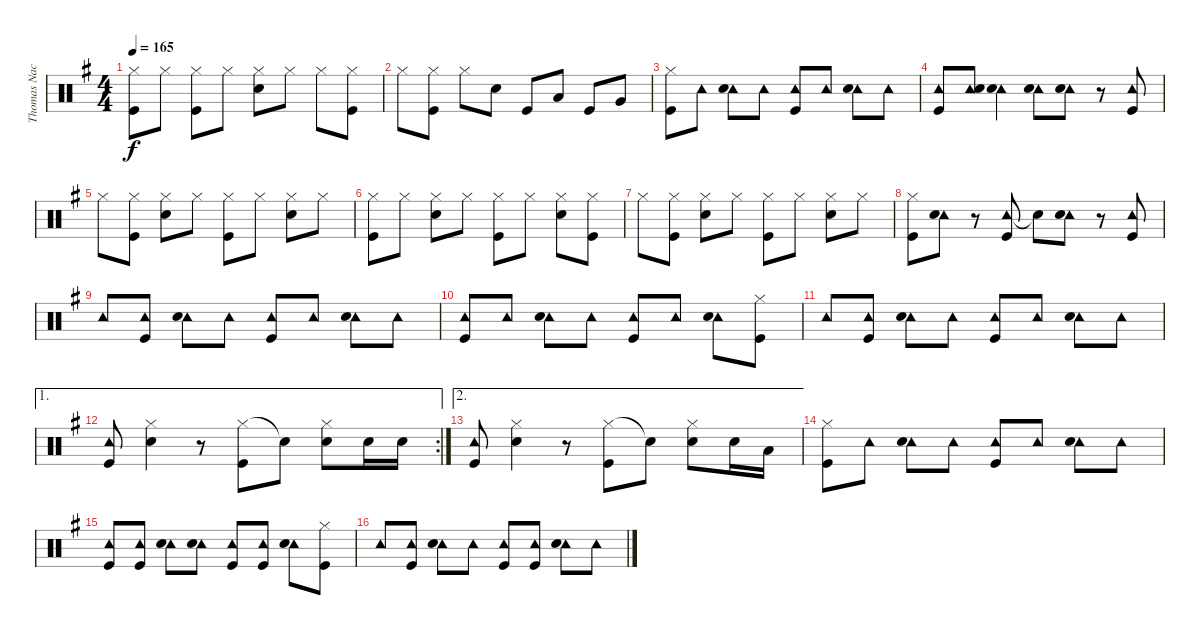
\track ("Thomas Nack" "Thomas Nac") {instrument percussion}
\staff {score}
\articulation defaults
\ts (4 4)
\tempo 165
\clef neutral
\ks g
("Hi-Hat (closed)" "Kick (hit)").8{dy f} "Hi-Hat (closed)".8 ("Hi-Hat (closed)" "Kick (hit)").8 "Hi-Hat (closed)".8 ("Hi-Hat (closed)" "Snare (hit) 2").8 "Hi-Hat (closed)".8 "Hi-Hat (closed)".8 ("Hi-Hat (closed)" "Kick (hit)").8 |
"Hi-Hat (closed)".8 ("Hi-Hat (closed)" "Kick (hit)").8 "Hi-Hat (closed)".8 "Snare (hit) 2".8 "Kick (hit)".8 "Low Tom (hit)".8 "Kick (hit)".8 "Very Low Tom (hit)".8 |
("Hi-Hat (closed)" "Kick (hit)").8 "Tambourine (hit)".8 ("Tambourine (hit)" "Snare (hit) 2").8 "Tambourine (hit)".8 ("Tambourine (hit)" "Kick (hit)").8 "Tambourine (hit)".8 ("Tambourine (hit)" "Snare (hit) 2").8 "Tambourine (hit)".8 |
("Tambourine (hit)" "Kick (hit)").8 ("Tambourine (hit)" "Snare (hit) 2").8 ("Tambourine (hit)" "Snare (hit) 2").4 ("Tambourine (hit)" "Snare (hit) 2").8 ("Tambourine (hit)" "Snare (hit) 2").8 r.8 ("Tambourine (hit)" "Kick (hit)").8 |
"Hi-Hat (closed)".8 ("Hi-Hat (closed)" "Kick (hit)").8 ("Hi-Hat (closed)" "Snare (hit) 2").8 "Hi-Hat (closed)".8 ("Hi-Hat (closed)" "Kick (hit)").8 "Hi-Hat (closed)".8 ("Hi-Hat (closed)" "Snare (hit) 2").8 "Hi-Hat (closed)".8 |
("Hi-Hat (closed)" "Kick (hit)").8 "Hi-Hat (closed)".8 ("Hi-Hat (closed)" "Snare (hit) 2").8 "Hi-Hat (closed)".8 ("Hi-Hat (closed)" "Kick (hit)").8 "Hi-Hat (closed)".8 ("Hi-Hat (closed)" "Snare (hit) 2").8 ("Hi-Hat (closed)" "Kick (hit)").8 |
"Hi-Hat (closed)".8 ("Hi-Hat (closed)" "Kick (hit)").8 ("Hi-Hat (closed)" "Snare (hit) 2").8 "Hi-Hat (closed)".8 ("Hi-Hat (closed)" "Kick (hit)").8 "Hi-Hat (closed)".8 ("Hi-Hat (closed)" "Snare (hit) 2").8 "Hi-Hat (closed)".8 |
("Hi-Hat (closed)" "Kick (hit)").8 ("Tambourine (hit)" "Snare (hit) 2").8 r.8 ("Tambourine (hit)" "Kick (hit)").8 "Snare (hit)"{t}.8 ("Tambourine (hit)" "Snare (hit) 2").8 r.8 ("Tambourine (hit)" "Kick (hit)").8 |
"Tambourine (hit)".8 ("Tambourine (hit)" "Kick (hit)").8 ("Tambourine (hit)" "Snare (hit) 2").8 "Tambourine (hit)".8 ("Tambourine (hit)" "Kick (hit)").8 "Tambourine (hit)".8 ("Tambourine (hit)" "Snare (hit) 2").8 "Tambourine (hit)".8 |
("Tambourine (hit)" "Kick (hit)").8 "Tambourine (hit)".8 ("Tambourine (hit)" "Snare (hit) 2").8 "Tambourine (hit)".8 ("Tambourine (hit)" "Kick (hit)").8 "Tambourine (hit)".8 ("Tambourine (hit)" "Snare (hit) 2").8 ("Hi-Hat (closed)" "Kick (hit)").8 |
"Tambourine (hit)".8 ("Tambourine (hit)" "Kick (hit)").8 ("Tambourine (hit)" "Snare (hit) 2").8 "Tambourine (hit)".8 ("Tambourine (hit)" "Kick (hit)").8 "Tambourine (hit)".8 ("Tambourine (hit)" "Snare (hit) 2").8 "Tambourine (hit)".8 |
\ae 1
\rc 2
("Tambourine (hit)" "Kick (hit)").8 ("Hi-Hat (closed)" "Snare (hit) 2").4 r.8 ("Hi-Hat (closed)" "Kick (hit)").8 "Snare (hit)"{t}.8 ("Hi-Hat (closed)" "Snare (hit) 2").8 "Snare (hit) 2".16 "Snare (hit) 2".16 |
\ae 2
("Tambourine (hit)" "Kick (hit)").8 ("Hi-Hat (closed)" "Snare (hit) 2").4 r.8 ("Hi-Hat (closed)" "Kick (hit)").8 "Snare (hit)"{t}.8 ("Hi-Hat (closed)" "Snare (hit) 2").8 "Snare (hit) 2".16 "Low Tom (hit)".16 |
("Hi-Hat (closed)" "Kick (hit)").8 "Tambourine (hit)".8 ("Tambourine (hit)" "Snare (hit) 2").8 "Tambourine (hit)".8 ("Tambourine (hit)" "Kick (hit)").8 "Tambourine (hit)".8 ("Tambourine (hit)" "Snare (hit) 2").8 "Tambourine (hit)".8 |
("Tambourine (hit)" "Kick (hit)").8 ("Tambourine (hit)" "Kick (hit)").8 ("Tambourine (hit)" "Snare (hit) 2").8 ("Tambourine (hit)" "Snare (hit) 2").8 ("Tambourine (hit)" "Kick (hit)").8 ("Tambourine (hit)" "Kick (hit)").8 ("Tambourine (hit)" "Snare (hit) 2").8 ("Hi-Hat (closed)" "Kick (hit)").8 |
"Tambourine (hit)".8 ("Tambourine (hit)" "Kick (hit)").8 ("Tambourine (hit)" "Snare (hit) 2").8 "Tambourine (hit)".8 ("Tambourine (hit)" "Kick (hit)").8 ("Tambourine (hit)" "Kick (hit)").8 ("Tambourine (hit)" "Snare (hit) 2").8 "Tambourine (hit)".8
